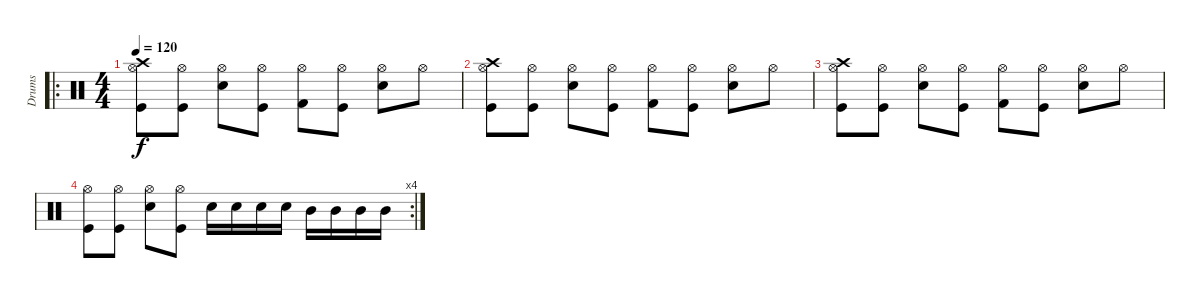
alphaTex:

\track ("Drums" "Drums") {instrument percussion}
\staff {score}
\articulation defaults
\ro
\ts (4 4)
\tempo 120
\clef neutral
\ks c
("Kick (hit)" "Crash high (hit)" "Hi-Hat (open)").8{dy f} ("Kick (hit)" "Hi-Hat (open)").8 ("Snare (hit) 2" "Hi-Hat (open)").8 ("Kick (hit)" "Hi-Hat (open)").8 ("Kick (hit) 2" "Hi-Hat (open)").8 ("Kick (hit)" "Hi-Hat (open)").8 ("Snare (hit) 2" "Hi-Hat (open)").8 "Hi-Hat (open)".8 |
("Kick (hit)" "Crash high (hit)" "Hi-Hat (open)").8 ("Kick (hit)" "Hi-Hat (open)").8 ("Snare (hit) 2" "Hi-Hat (open)").8 ("Kick (hit)" "Hi-Hat (open)").8 ("Kick (hit) 2" "Hi-Hat (open)").8 ("Kick (hit)" "Hi-Hat (open)").8 ("Snare (hit) 2" "Hi-Hat (open)").8 "Hi-Hat (open)".8 |
("Kick (hit)" "Crash high (hit)" "Hi-Hat (open)").8 ("Kick (hit)" "Hi-Hat (open)").8 ("Snare (hit) 2" "Hi-Hat (open)").8 ("Kick (hit)" "Hi-Hat (open)").8 ("Kick (hit) 2" "Hi-Hat (open)").8 ("Kick (hit)" "Hi-Hat (open)").8 ("Snare (hit) 2" "Hi-Hat (open)").8 "Hi-Hat (open)".8 |
\rc 4
("Hi-Hat (open)" "Kick (hit)").8 ("Hi-Hat (open)" "Kick (hit)").8 ("Hi-Hat (open)" "Snare (hit) 2").8 ("Hi-Hat (open)" "Kick (hit)").8 "Snare (hit) 2".16 "Snare (hit) 2".16 "Snare (hit) 2".16 "Snare (hit) 2".16 "Mid Tom (hit)".16 "Mid Tom (hit)".16 "Mid Tom (hit)".16 "Mid Tom (hit)".16
